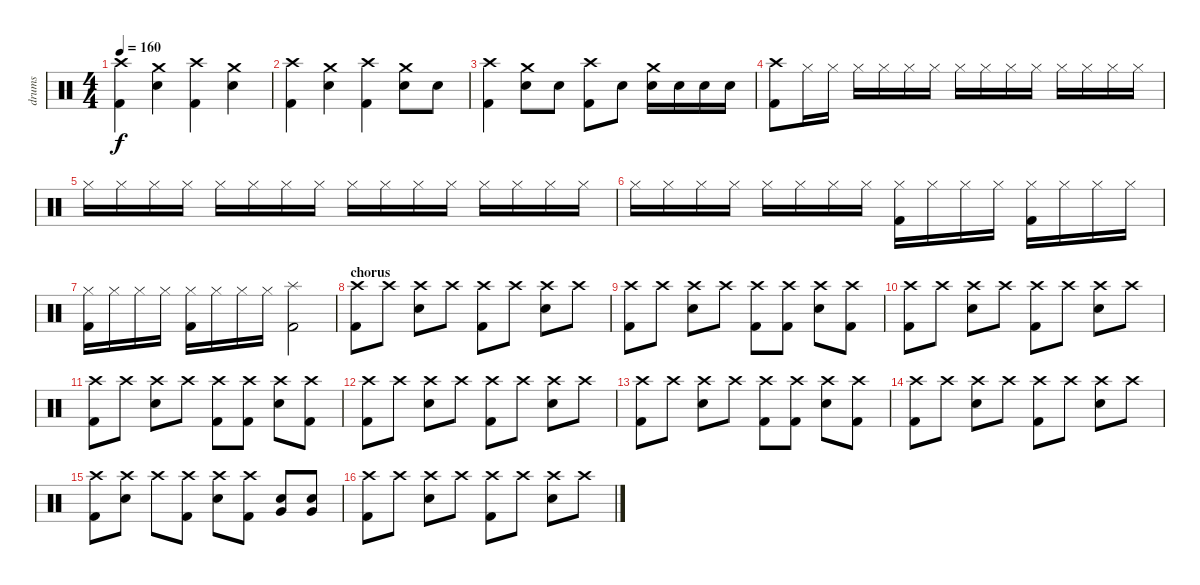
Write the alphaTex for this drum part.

\track ("drums" "drums") {instrument percussion}
\staff {score}
\articulation defaults
\ts (4 4)
\tempo 160
\clef neutral
\ks c
("Crash high (hit)" "Kick (hit) 2").4{dy f} ("Crash medium (hit)" "Electric Snare (hit)").4 ("Crash high (hit)" "Kick (hit) 2").4 ("Crash medium (hit)" "Electric Snare (hit)").4 |
("Crash high (hit)" "Kick (hit) 2").4 ("Crash medium (hit)" "Electric Snare (hit)").4 ("Crash high (hit)" "Kick (hit) 2").4 ("Crash medium (hit)" "Electric Snare (hit)").8 "Electric Snare (hit)".8 |
("Crash high (hit)" "Kick (hit) 2").4 ("Crash medium (hit)" "Electric Snare (hit)").8 "Electric Snare (hit)".8 ("Crash high (hit)" "Kick (hit) 2").8 "Electric Snare (hit)".8 ("Crash medium (hit)" "Electric Snare (hit)").16 "Electric Snare (hit)".16 "Electric Snare (hit)".16 "Electric Snare (hit)".16 |
("Crash high (hit)" "Kick (hit) 2").8 "Hi-Hat (closed)".16 "Hi-Hat (closed)".16 "Hi-Hat (closed)".16 "Hi-Hat (closed)".16 "Hi-Hat (closed)".16 "Hi-Hat (closed)".16 "Hi-Hat (closed)".16 "Hi-Hat (closed)".16 "Hi-Hat (closed)".16 "Hi-Hat (closed)".16 "Hi-Hat (closed)".16 "Hi-Hat (closed)".16 "Hi-Hat (closed)".16 "Hi-Hat (closed)".16 |
"Hi-Hat (closed)".16 "Hi-Hat (closed)".16 "Hi-Hat (closed)".16 "Hi-Hat (closed)".16 "Hi-Hat (closed)".16 "Hi-Hat (closed)".16 "Hi-Hat (closed)".16 "Hi-Hat (closed)".16 "Hi-Hat (closed)".16 "Hi-Hat (closed)".16 "Hi-Hat (closed)".16 "Hi-Hat (closed)".16 "Hi-Hat (closed)".16 "Hi-Hat (closed)".16 "Hi-Hat (closed)".16 "Hi-Hat (closed)".16 |
"Hi-Hat (closed)".16 "Hi-Hat (closed)".16 "Hi-Hat (closed)".16 "Hi-Hat (closed)".16 "Hi-Hat (closed)".16 "Hi-Hat (closed)".16 "Hi-Hat (closed)".16 "Hi-Hat (closed)".16 ("Hi-Hat (closed)" "Kick (hit) 2").16 "Hi-Hat (closed)".16 "Hi-Hat (closed)".16 "Hi-Hat (closed)".16 ("Hi-Hat (closed)" "Kick (hit) 2").16 "Hi-Hat (closed)".16 "Hi-Hat (closed)".16 "Hi-Hat (closed)".16 |
("Hi-Hat (closed)" "Kick (hit) 2").16 "Hi-Hat (closed)".16 "Hi-Hat (closed)".16 "Hi-Hat (closed)".16 ("Hi-Hat (closed)" "Kick (hit) 2").16 "Hi-Hat (closed)".16 "Hi-Hat (closed)".16 "Hi-Hat (closed)".16 ("Splash (hit)" "Kick (hit) 2").2 |
\section ("" "chorus")
("Crash high (hit)" "Kick (hit) 2").8 "Crash high (hit)".8 ("Crash high (hit)" "Electric Snare (hit)").8 "Crash high (hit)".8 ("Crash high (hit)" "Kick (hit) 2").8 "Crash high (hit)".8 ("Crash high (hit)" "Electric Snare (hit)").8 "Crash high (hit)".8 |
("Crash high (hit)" "Kick (hit) 2").8 "Crash high (hit)".8 ("Crash high (hit)" "Electric Snare (hit)").8 "Crash high (hit)".8 ("Crash high (hit)" "Kick (hit) 2").8 ("Crash high (hit)" "Kick (hit) 2").8 ("Crash high (hit)" "Electric Snare (hit)").8 ("Crash high (hit)" "Kick (hit) 2").8 |
("Crash high (hit)" "Kick (hit) 2").8 "Crash high (hit)".8 ("Crash high (hit)" "Electric Snare (hit)").8 "Crash high (hit)".8 ("Crash high (hit)" "Kick (hit) 2").8 "Crash high (hit)".8 ("Crash high (hit)" "Electric Snare (hit)").8 "Crash high (hit)".8 |
("Crash high (hit)" "Kick (hit) 2").8 "Crash high (hit)".8 ("Crash high (hit)" "Electric Snare (hit)").8 "Crash high (hit)".8 ("Crash high (hit)" "Kick (hit) 2").8 ("Crash high (hit)" "Kick (hit) 2").8 ("Crash high (hit)" "Electric Snare (hit)").8 ("Crash high (hit)" "Kick (hit) 2").8 |
("Crash high (hit)" "Kick (hit) 2").8 "Crash high (hit)".8 ("Crash high (hit)" "Electric Snare (hit)").8 "Crash high (hit)".8 ("Crash high (hit)" "Kick (hit) 2").8 "Crash high (hit)".8 ("Crash high (hit)" "Electric Snare (hit)").8 "Crash high (hit)".8 |
("Crash high (hit)" "Kick (hit) 2").8 "Crash high (hit)".8 ("Crash high (hit)" "Electric Snare (hit)").8 "Crash high (hit)".8 ("Crash high (hit)" "Kick (hit) 2").8 ("Crash high (hit)" "Kick (hit) 2").8 ("Crash high (hit)" "Electric Snare (hit)").8 ("Crash high (hit)" "Kick (hit) 2").8 |
("Crash high (hit)" "Kick (hit) 2").8 "Crash high (hit)".8 ("Crash high (hit)" "Electric Snare (hit)").8 "Crash high (hit)".8 ("Crash high (hit)" "Kick (hit) 2").8 "Crash high (hit)".8 ("Crash high (hit)" "Electric Snare (hit)").8 "Crash high (hit)".8 |
("Crash high (hit)" "Kick (hit) 2").8 ("Crash high (hit)" "Electric Snare (hit)").8 "Crash high (hit)".8 ("Crash high (hit)" "Kick (hit) 2").8 ("Crash high (hit)" "Electric Snare (hit)").8 ("Crash high (hit)" "Kick (hit) 2").8 ("Very Low Tom (hit)" "Electric Snare (hit)").8 ("Very Low Tom (hit)" "Electric Snare (hit)").8 |
("Crash high (hit)" "Kick (hit) 2").8 "Crash high (hit)".8 ("Crash high (hit)" "Electric Snare (hit)").8 "Crash high (hit)".8 ("Crash high (hit)" "Kick (hit) 2").8 "Crash high (hit)".8 ("Crash high (hit)" "Electric Snare (hit)").8 "Crash high (hit)".8
